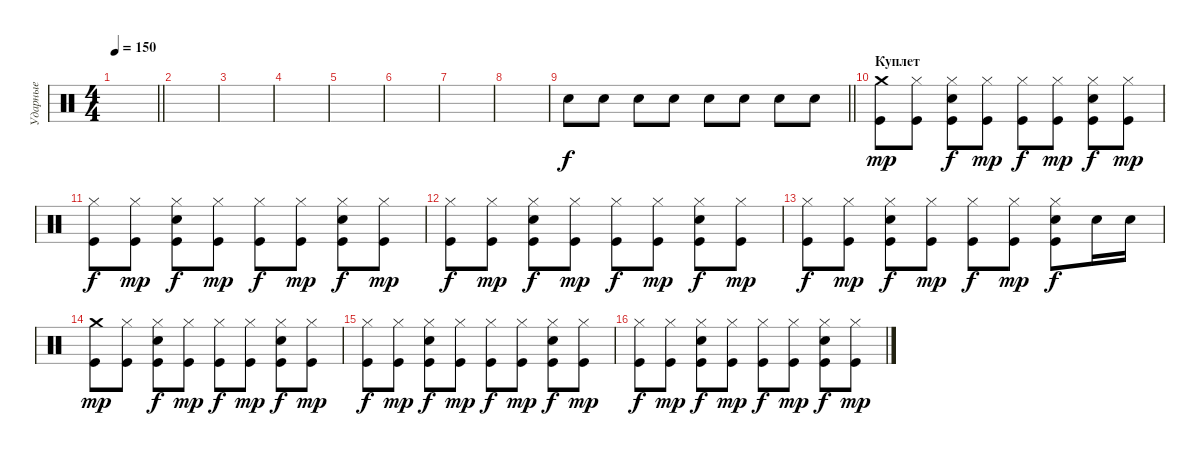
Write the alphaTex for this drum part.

\track ("Ударные" "Ударные") {instrument percussion}
\staff {score}
\articulation defaults
\ts (4 4)
\tempo 150
\clef neutral
\barLineRight lightlight
\ks c
|
\section ("" " ")
|
|
|
|
|
|
|
\barLineRight lightlight "Electric Snare (hit)".8 "Electric Snare (hit)".8 "Electric Snare (hit)".8 "Electric Snare (hit)".8 "Electric Snare (hit)".8 "Electric Snare (hit)".8 "Electric Snare (hit)".8 "Electric Snare (hit)".8
|
\section ("" "Куплет")
("Crash medium (hit)" "Kick (hit)").8{dy mp} ("Hi-Hat (closed)" "Kick (hit)").8 ("Hi-Hat (closed)" "Electric Snare (hit)" "Kick (hit)").8{dy f} ("Hi-Hat (closed)" "Kick (hit)").8{dy mp} ("Hi-Hat (closed)" "Kick (hit)").8{dy f} ("Hi-Hat (closed)" "Kick (hit)").8{dy mp} ("Hi-Hat (closed)" "Electric Snare (hit)" "Kick (hit)").8{dy f} ("Hi-Hat (closed)" "Kick (hit)").8{dy mp} |
("Hi-Hat (closed)" "Kick (hit)").8{dy f} ("Hi-Hat (closed)" "Kick (hit)").8{dy mp} ("Hi-Hat (closed)" "Electric Snare (hit)" "Kick (hit)").8{dy f} ("Hi-Hat (closed)" "Kick (hit)").8{dy mp} ("Hi-Hat (closed)" "Kick (hit)").8{dy f} ("Hi-Hat (closed)" "Kick (hit)").8{dy mp} ("Hi-Hat (closed)" "Electric Snare (hit)" "Kick (hit)").8{dy f} ("Hi-Hat (closed)" "Kick (hit)").8{dy mp} |
("Hi-Hat (closed)" "Kick (hit)").8{dy f} ("Hi-Hat (closed)" "Kick (hit)").8{dy mp} ("Hi-Hat (closed)" "Electric Snare (hit)" "Kick (hit)").8{dy f} ("Hi-Hat (closed)" "Kick (hit)").8{dy mp} ("Hi-Hat (closed)" "Kick (hit)").8{dy f} ("Hi-Hat (closed)" "Kick (hit)").8{dy mp} ("Hi-Hat (closed)" "Electric Snare (hit)" "Kick (hit)").8{dy f} ("Hi-Hat (closed)" "Kick (hit)").8{dy mp} |
("Hi-Hat (closed)" "Kick (hit)").8{dy f} ("Hi-Hat (closed)" "Kick (hit)").8{dy mp} ("Hi-Hat (closed)" "Electric Snare (hit)" "Kick (hit)").8{dy f} ("Hi-Hat (closed)" "Kick (hit)").8{dy mp} ("Hi-Hat (closed)" "Kick (hit)").8{dy f} ("Hi-Hat (closed)" "Kick (hit)").8{dy mp} ("Hi-Hat (closed)" "Electric Snare (hit)" "Kick (hit)").8{dy f} "Electric Snare (hit)".16 "Electric Snare (hit)".16 |
("Crash medium (hit)" "Kick (hit)").8{dy mp} ("Hi-Hat (closed)" "Kick (hit)").8 ("Hi-Hat (closed)" "Electric Snare (hit)" "Kick (hit)").8{dy f} ("Hi-Hat (closed)" "Kick (hit)").8{dy mp} ("Hi-Hat (closed)" "Kick (hit)").8{dy f} ("Hi-Hat (closed)" "Kick (hit)").8{dy mp} ("Hi-Hat (closed)" "Electric Snare (hit)" "Kick (hit)").8{dy f} ("Hi-Hat (closed)" "Kick (hit)").8{dy mp} |
("Hi-Hat (closed)" "Kick (hit)").8{dy f} ("Hi-Hat (closed)" "Kick (hit)").8{dy mp} ("Hi-Hat (closed)" "Electric Snare (hit)" "Kick (hit)").8{dy f} ("Hi-Hat (closed)" "Kick (hit)").8{dy mp} ("Hi-Hat (closed)" "Kick (hit)").8{dy f} ("Hi-Hat (closed)" "Kick (hit)").8{dy mp} ("Hi-Hat (closed)" "Electric Snare (hit)" "Kick (hit)").8{dy f} ("Hi-Hat (closed)" "Kick (hit)").8{dy mp} |
("Hi-Hat (closed)" "Kick (hit)").8{dy f} ("Hi-Hat (closed)" "Kick (hit)").8{dy mp} ("Hi-Hat (closed)" "Electric Snare (hit)" "Kick (hit)").8{dy f} ("Hi-Hat (closed)" "Kick (hit)").8{dy mp} ("Hi-Hat (closed)" "Kick (hit)").8{dy f} ("Hi-Hat (closed)" "Kick (hit)").8{dy mp} ("Hi-Hat (closed)" "Electric Snare (hit)" "Kick (hit)").8{dy f} ("Hi-Hat (closed)" "Kick (hit)").8{dy mp}
